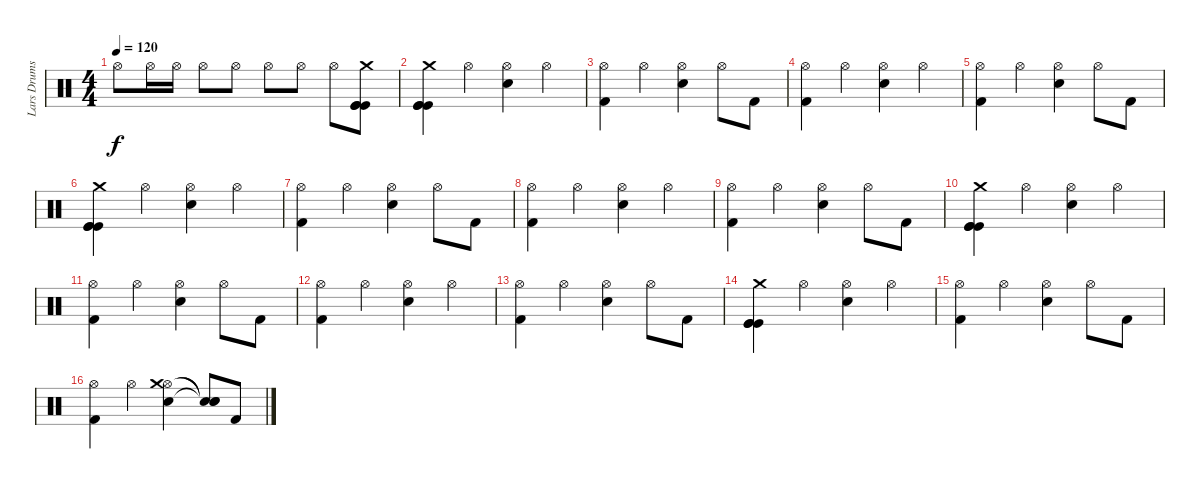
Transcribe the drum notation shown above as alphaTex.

\track ("Lars Drums" "Lars Drums") {instrument percussion}
\staff {score}
\articulation defaults
\ts (4 4)
\tempo 120
\clef neutral
\ks c "Hi-Hat (open)".8{dy f} "Hi-Hat (open)".16 "Hi-Hat (open)".16 "Hi-Hat (open)".8 "Hi-Hat (open)".8 "Hi-Hat (open)".8 "Hi-Hat (open)".8 "Hi-Hat (open)".8
("Kick (hit)" "Kick (hit)" "Kick (hit)" "Crash medium (hit)").8 |
("Kick (hit)" "Kick (hit)" "Kick (hit)" "Crash medium (hit)").4 "Hi-Hat (open)".4 ("Hi-Hat (open)" "Electric Snare (hit)").4 "Hi-Hat (open)".4 |
("Hi-Hat (open)" "Kick (hit) 2").4 "Hi-Hat (open)".4 ("Hi-Hat (open)" "Electric Snare (hit)").4 "Hi-Hat (open)".8 "Kick (hit) 2".8 |
("Hi-Hat (open)" "Kick (hit) 2").4 "Hi-Hat (open)".4 ("Hi-Hat (open)" "Electric Snare (hit)").4 "Hi-Hat (open)".4 |
("Hi-Hat (open)" "Kick (hit) 2").4 "Hi-Hat (open)".4 ("Hi-Hat (open)" "Electric Snare (hit)").4 "Hi-Hat (open)".8 "Kick (hit) 2".8 |
("Kick (hit)" "Kick (hit)" "Kick (hit)" "Crash medium (hit)").4 "Hi-Hat (open)".4 ("Hi-Hat (open)" "Electric Snare (hit)").4 "Hi-Hat (open)".4 |
("Hi-Hat (open)" "Kick (hit) 2").4 "Hi-Hat (open)".4 ("Hi-Hat (open)" "Electric Snare (hit)").4 "Hi-Hat (open)".8 "Kick (hit) 2".8 |
("Hi-Hat (open)" "Kick (hit) 2").4 "Hi-Hat (open)".4 ("Hi-Hat (open)" "Electric Snare (hit)").4 "Hi-Hat (open)".4 |
("Hi-Hat (open)" "Kick (hit) 2").4 "Hi-Hat (open)".4 ("Hi-Hat (open)" "Electric Snare (hit)").4 "Hi-Hat (open)".8 "Kick (hit) 2".8 |
("Kick (hit)" "Kick (hit)" "Kick (hit)" "Crash medium (hit)").4 "Hi-Hat (open)".4 ("Hi-Hat (open)" "Electric Snare (hit)").4 "Hi-Hat (open)".4 |
("Hi-Hat (open)" "Kick (hit) 2").4 "Hi-Hat (open)".4 ("Hi-Hat (open)" "Electric Snare (hit)").4 "Hi-Hat (open)".8 "Kick (hit) 2".8 |
("Hi-Hat (open)" "Kick (hit) 2").4 "Hi-Hat (open)".4 ("Hi-Hat (open)" "Electric Snare (hit)").4 "Hi-Hat (open)".4 |
("Hi-Hat (open)" "Kick (hit) 2").4 "Hi-Hat (open)".4 ("Hi-Hat (open)" "Electric Snare (hit)").4 "Hi-Hat (open)".8 "Kick (hit) 2".8 |
("Kick (hit)" "Kick (hit)" "Kick (hit)" "Crash medium (hit)").4 "Hi-Hat (open)".4 ("Hi-Hat (open)" "Electric Snare (hit)").4 "Hi-Hat (open)".4 |
("Hi-Hat (open)" "Kick (hit) 2").4 "Hi-Hat (open)".4 ("Hi-Hat (open)" "Electric Snare (hit)").4 "Hi-Hat (open)".8 "Kick (hit) 2".8 |
("Hi-Hat (open)" "Kick (hit) 2").4 "Hi-Hat (open)".4 ("Hi-Hat (open)" "Electric Snare (hit)" "Crash medium (hit)").4 ("Snare (hit)"{t} "Snare (hit)"{t} "Snare (hit)"{t}).8 "Kick (hit) 2".8
